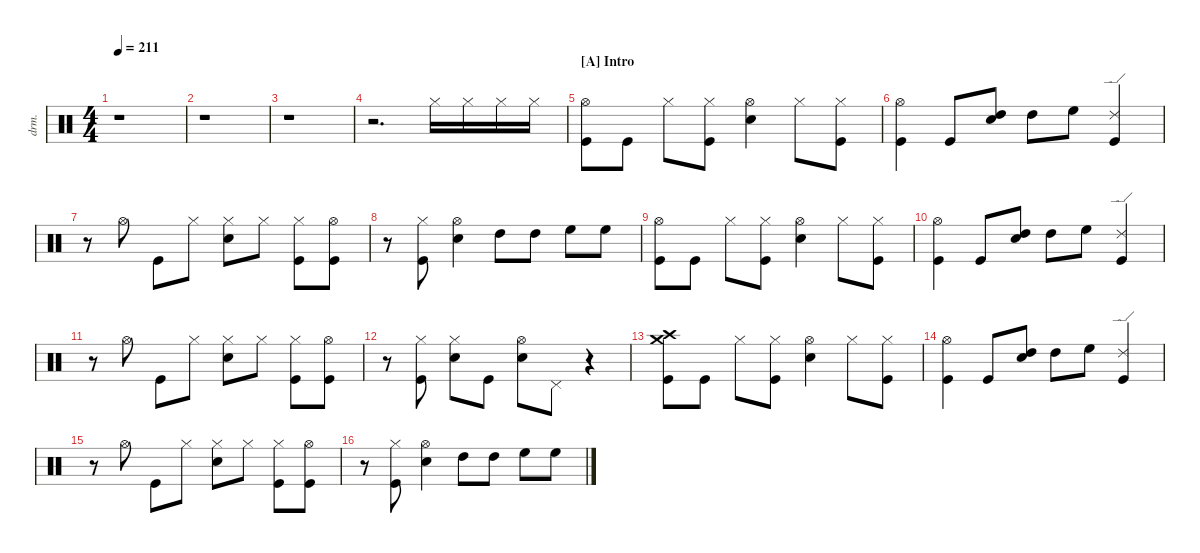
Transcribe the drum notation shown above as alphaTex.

\defaultSystemsLayout 4
\hideDynamics
\bracketExtendMode nobrackets
\track ("Drums" "drm.") {instrument percussion}
\staff {score}
\articulation defaults
\ts (4 4)
\tempo 211
\clef neutral
\ks c
r.1{dy f beam Down} |
r.1{beam Down} |
r.1{beam Down} |
r.2{d beam Down} "Hi-Hat (closed)"{acc #}.16{beam Down} "Hi-Hat (closed)"{acc #}.16{dy mf beam Down} "Hi-Hat (closed)"{acc #}.16{dy f beam Down} "Hi-Hat (closed)"{acc #}.16{dy mf beam Down} |
\section ("A" "Intro")
("Kick (hit)" "Hi-Hat (open)"{acc #}).8{dy f beam Down} "Kick (hit)".8{dy fff beam Down} "Hi-Hat (closed)"{acc #}.8{dy ff beam Down} ("Kick (hit)" "Hi-Hat (closed)"{acc #}).8{beam Down} ("Snare (hit) 2" "Hi-Hat (open)"{acc #}).4{beam Down} "Hi-Hat (closed)"{acc #}.8{beam Down} ("Kick (hit)" "Hi-Hat (closed)"{acc #}).8{dy f beam Down} |
("Kick (hit)" "Hi-Hat (open)"{acc #}).4{dy fff beam Down} "Kick (hit)".8{dy ff beam Up} ("Snare (hit) 2" "High Tom (hit)").8{beam Up} "High Tom (hit)".8{dy mp beam Down} "High Floor Tom (hit)".8{dy ff beam Down} ("Kick (hit)" "Ride (edge) 2").4{beam Up} |
r.8{beam Down} "Hi-Hat (open)"{acc #}.8{beam Down} "Kick (hit)".8{beam Down} "Hi-Hat (closed)"{acc #}.8{dy mp beam Down} ("Snare (hit) 2" "Hi-Hat (closed)"{acc #}).8{dy ff beam Down} "Hi-Hat (closed)"{acc #}.8{dy mp beam Down} ("Kick (hit)" "Hi-Hat (closed)"{acc #}).8{dy ff beam Down} ("Kick (hit)" "Hi-Hat (open)"{acc #}).8{beam Down} |
r.8{beam Down} ("Kick (hit)" "Hi-Hat (closed)"{acc #}).8{beam Down} ("Snare (hit) 2" "Hi-Hat (open)"{acc #}).4{beam Down} "High Tom (hit)".8{beam Down} "High Tom (hit)".8{dy f beam Down} "High Floor Tom (hit)".8{dy ff beam Down} "High Floor Tom (hit)".8{dy f beam Down} |
("Kick (hit)" "Hi-Hat (open)"{acc #}).8{beam Down} "Kick (hit)".8{dy fff beam Down} "Hi-Hat (closed)"{acc #}.8{dy ff beam Down} ("Kick (hit)" "Hi-Hat (closed)"{acc #}).8{beam Down} ("Snare (hit) 2" "Hi-Hat (open)"{acc #}).4{beam Down} "Hi-Hat (closed)"{acc #}.8{beam Down} ("Kick (hit)" "Hi-Hat (closed)"{acc #}).8{dy f beam Down} |
("Kick (hit)" "Hi-Hat (open)"{acc #}).4{dy fff beam Down} "Kick (hit)".8{dy ff beam Up} ("Snare (hit) 2" "High Tom (hit)").8{beam Up} "High Tom (hit)".8{dy mp beam Down} "High Floor Tom (hit)".8{dy ff beam Down} ("Kick (hit)" "Ride (edge) 2").4{beam Up} |
r.8{beam Down} "Hi-Hat (open)"{acc #}.8{beam Down} "Kick (hit)".8{beam Down} "Hi-Hat (closed)"{acc #}.8{dy p beam Down} ("Snare (hit) 2" "Hi-Hat (closed)"{acc #}).8{dy ff beam Down} "Hi-Hat (closed)"{acc #}.8{dy mp beam Down} ("Kick (hit)" "Hi-Hat (closed)"{acc #}).8{dy ff beam Down} ("Kick (hit)" "Hi-Hat (open)"{acc #}).8{beam Down} |
r.8{beam Down} ("Kick (hit)" "Hi-Hat (closed)"{acc #}).8{beam Down} ("Snare (hit) 2" "Hi-Hat (closed)"{acc #}).8{dy mp beam Down} "Kick (hit)".8{dy mf beam Down} ("Snare (hit) 2" "Hi-Hat (open)"{acc #}).8{dy ff beam Down} "Pedal Hi-Hat (hit)"{acc #}.8{beam Down} r.4{beam Down} |
("Kick (hit)" "Crash high (hit)"{acc #} "Crash medium (hit)").8{dy f beam Down} "Kick (hit)".8{dy fff beam Down} "Hi-Hat (closed)"{acc #}.8{dy ff beam Down} ("Kick (hit)" "Hi-Hat (closed)"{acc #}).8{beam Down} ("Snare (hit) 2" "Hi-Hat (open)"{acc #}).4{beam Down} "Hi-Hat (closed)"{acc #}.8{beam Down} ("Kick (hit)" "Hi-Hat (closed)"{acc #}).8{dy f beam Down} |
("Kick (hit)" "Hi-Hat (open)"{acc #}).4{dy fff beam Down} "Kick (hit)".8{dy ff beam Up} ("Snare (hit) 2" "High Tom (hit)").8{beam Up} "High Tom (hit)".8{dy mp beam Down} "High Floor Tom (hit)".8{dy ff beam Down} ("Kick (hit)" "Ride (edge) 2").4{beam Up} |
r.8{beam Down} "Hi-Hat (open)"{acc #}.8{beam Down} "Kick (hit)".8{beam Down} "Hi-Hat (closed)"{acc #}.8{dy mp beam Down} ("Snare (hit) 2" "Hi-Hat (closed)"{acc #}).8{dy ff beam Down} "Hi-Hat (closed)"{acc #}.8{dy mp beam Down} ("Kick (hit)" "Hi-Hat (closed)"{acc #}).8{dy f beam Down} ("Kick (hit)" "Hi-Hat (open)"{acc #}).8{dy fff beam Down} |
r.8{beam Down} ("Kick (hit)" "Hi-Hat (closed)"{acc #}).8{dy ff beam Down} ("Snare (hit) 2" "Hi-Hat (open)"{acc #}).4{beam Down} "High Tom (hit)".8{beam Down} "High Tom (hit)".8{dy f beam Down} "High Floor Tom (hit)".8{dy ff beam Down} "High Floor Tom (hit)".8{dy f beam Down}
